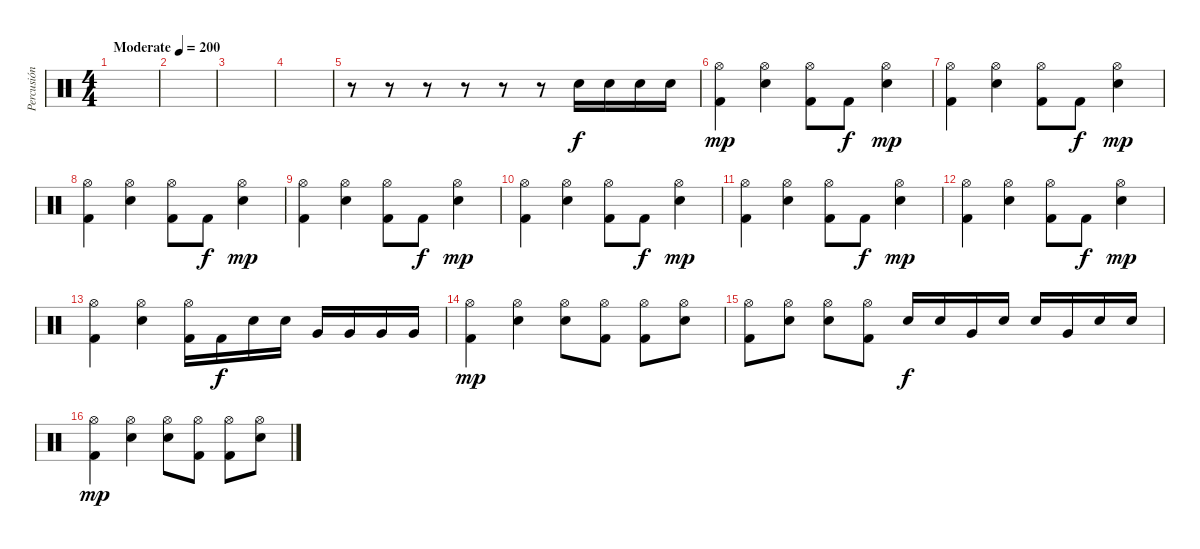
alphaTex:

\track ("Percusión" "Percusión") {instrument percussion}
\staff {score}
\articulation defaults
\ts (4 4)
\tempo (200 "Moderate")
\clef neutral
\ks c
|
|
|
|
r.8 r.8 r.8 r.8 r.8 r.8 "Electric Snare (hit)".16 "Electric Snare (hit)".16 "Electric Snare (hit)".16 "Electric Snare (hit)".16 |
("Hi-Hat (open)" "Kick (hit) 2").4{dy mp} ("Hi-Hat (open)" "Electric Snare (hit)").4 ("Hi-Hat (open)" "Kick (hit) 2").8 "Kick (hit) 2".8{dy f} ("Hi-Hat (open)" "Electric Snare (hit)").4{dy mp} |
("Hi-Hat (open)" "Kick (hit) 2").4 ("Hi-Hat (open)" "Electric Snare (hit)").4 ("Hi-Hat (open)" "Kick (hit) 2").8 "Kick (hit) 2".8{dy f} ("Hi-Hat (open)" "Electric Snare (hit)").4{dy mp} |
("Hi-Hat (open)" "Kick (hit) 2").4 ("Hi-Hat (open)" "Electric Snare (hit)").4 ("Hi-Hat (open)" "Kick (hit) 2").8 "Kick (hit) 2".8{dy f} ("Hi-Hat (open)" "Electric Snare (hit)").4{dy mp} |
("Hi-Hat (open)" "Kick (hit) 2").4 ("Hi-Hat (open)" "Electric Snare (hit)").4 ("Hi-Hat (open)" "Kick (hit) 2").8 "Kick (hit) 2".8{dy f} ("Hi-Hat (open)" "Electric Snare (hit)").4{dy mp} |
("Hi-Hat (open)" "Kick (hit) 2").4 ("Hi-Hat (open)" "Electric Snare (hit)").4 ("Hi-Hat (open)" "Kick (hit) 2").8 "Kick (hit) 2".8{dy f} ("Hi-Hat (open)" "Electric Snare (hit)").4{dy mp} |
("Hi-Hat (open)" "Kick (hit) 2").4 ("Hi-Hat (open)" "Electric Snare (hit)").4 ("Hi-Hat (open)" "Kick (hit) 2").8 "Kick (hit) 2".8{dy f} ("Hi-Hat (open)" "Electric Snare (hit)").4{dy mp} |
("Hi-Hat (open)" "Kick (hit) 2").4 ("Hi-Hat (open)" "Electric Snare (hit)").4 ("Hi-Hat (open)" "Kick (hit) 2").8 "Kick (hit) 2".8{dy f} ("Hi-Hat (open)" "Electric Snare (hit)").4{dy mp} |
("Hi-Hat (open)" "Kick (hit) 2").4 ("Hi-Hat (open)" "Electric Snare (hit)").4 ("Hi-Hat (open)" "Kick (hit) 2").16 "Kick (hit) 2".16{dy f} "Electric Snare (hit)".16 "Electric Snare (hit)".16 "Very Low Tom (hit)".16 "Very Low Tom (hit)".16 "Very Low Tom (hit)".16 "Very Low Tom (hit)".16 |
("Hi-Hat (open)" "Kick (hit) 2").4{dy mp} ("Hi-Hat (open)" "Electric Snare (hit)").4 ("Hi-Hat (open)" "Electric Snare (hit)").8 ("Hi-Hat (open)" "Kick (hit) 2").8 ("Hi-Hat (open)" "Kick (hit) 2").8 ("Hi-Hat (open)" "Electric Snare (hit)").8 |
("Hi-Hat (open)" "Kick (hit) 2").8 ("Hi-Hat (open)" "Electric Snare (hit)").8 ("Hi-Hat (open)" "Electric Snare (hit)").8 ("Hi-Hat (open)" "Kick (hit) 2").8 "Electric Snare (hit)".16{dy f} "Electric Snare (hit)".16 "Very Low Tom (hit)".16 "Electric Snare (hit)".16 "Electric Snare (hit)".16 "Very Low Tom (hit)".16 "Electric Snare (hit)".16 "Electric Snare (hit)".16 |
("Hi-Hat (open)" "Kick (hit) 2").4{dy mp} ("Hi-Hat (open)" "Electric Snare (hit)").4 ("Hi-Hat (open)" "Electric Snare (hit)").8 ("Hi-Hat (open)" "Kick (hit) 2").8 ("Hi-Hat (open)" "Kick (hit) 2").8 ("Hi-Hat (open)" "Electric Snare (hit)").8
